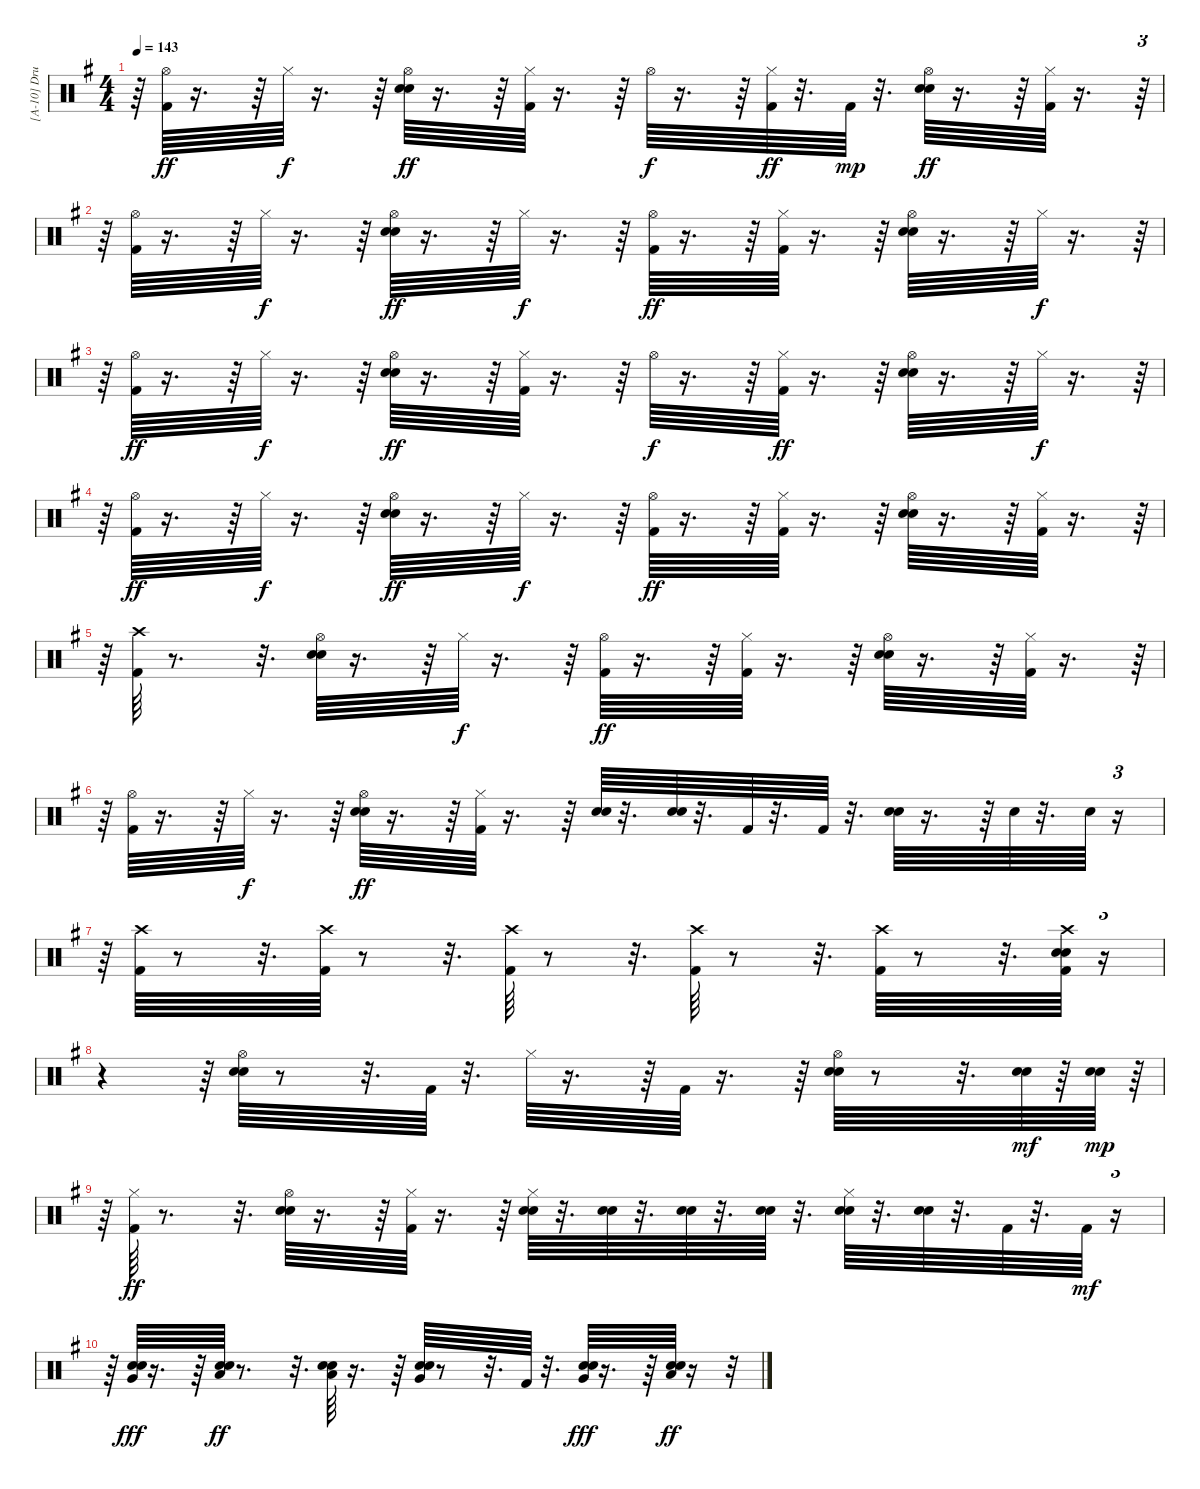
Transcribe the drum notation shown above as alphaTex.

\track ("[A-10] Drums" "[A-10] Dru") {instrument percussion}
\staff {score}
\articulation defaults
\ts (4 4)
\tempo 143
\clef neutral
\ks g
r.64{dy f} ("Hi-Hat (open)" "Kick (hit) 2").64{dy ff} r.16{d} r.64 "Hi-Hat (closed)".64{dy f} r.16{d} r.64 ("Hi-Hat (open)" "Electric Snare (hit)" "Snare (hit) 2").64{dy ff} r.16{d} r.64 ("Hi-Hat (closed)" "Kick (hit) 2").64 r.16{d} r.64 "Hi-Hat (open)".64{dy f} r.16{d} r.64 ("Hi-Hat (closed)" "Kick (hit) 2").64{dy ff} r.32{d} "Kick (hit) 2".64{dy mp} r.32{d} ("Hi-Hat (open)" "Electric Snare (hit)" "Snare (hit) 2").64{dy ff} r.16{d} r.64 ("Hi-Hat (closed)" "Kick (hit) 2").64 r.16{d} r.64{tu (3 2)} |
r.64 ("Hi-Hat (open)" "Kick (hit) 2").64 r.16{d} r.64 "Hi-Hat (closed)".64{dy f} r.16{d} r.64 ("Hi-Hat (open)" "Electric Snare (hit)" "Snare (hit) 2").64{dy ff} r.16{d} r.64 "Hi-Hat (closed)".64{dy f} r.16{d} r.64 ("Hi-Hat (open)" "Kick (hit) 2").64{dy ff} r.16{d} r.64 ("Hi-Hat (closed)" "Kick (hit) 2").64 r.16{d} r.64 ("Hi-Hat (open)" "Electric Snare (hit)" "Snare (hit) 2").64 r.16{d} r.64 "Hi-Hat (closed)".64{dy f} r.16{d} r.64{tu (3 2)} |
r.64 ("Hi-Hat (open)" "Kick (hit) 2").64{dy ff} r.16{d} r.64 "Hi-Hat (closed)".64{dy f} r.16{d} r.64 ("Hi-Hat (open)" "Electric Snare (hit)" "Snare (hit) 2").64{dy ff} r.16{d} r.64 ("Hi-Hat (closed)" "Kick (hit) 2").64 r.16{d} r.64 "Hi-Hat (open)".64{dy f} r.16{d} r.64 ("Hi-Hat (closed)" "Kick (hit) 2").64{dy ff} r.16{d} r.64 ("Hi-Hat (open)" "Electric Snare (hit)" "Snare (hit) 2").64 r.16{d} r.64 "Hi-Hat (closed)".64{dy f} r.16{d} r.64{tu (3 2)} |
r.64 ("Hi-Hat (open)" "Kick (hit) 2").64{dy ff} r.16{d} r.64 "Hi-Hat (closed)".64{dy f} r.16{d} r.64 ("Hi-Hat (open)" "Electric Snare (hit)" "Snare (hit) 2").64{dy ff} r.16{d} r.64 "Hi-Hat (closed)".64{dy f} r.16{d} r.64 ("Hi-Hat (open)" "Kick (hit) 2").64{dy ff} r.16{d} r.64 ("Hi-Hat (closed)" "Kick (hit) 2").64 r.16{d} r.64 ("Hi-Hat (open)" "Electric Snare (hit)" "Snare (hit) 2").64 r.16{d} r.64 ("Hi-Hat (closed)" "Kick (hit) 2").64 r.16{d} r.64{tu (3 2)} |
r.64 ("Crash high (hit)" "Kick (hit) 2").64 r.8{d} r.32{d} ("Hi-Hat (open)" "Electric Snare (hit)" "Snare (hit) 2").64 r.16{d} r.64 "Hi-Hat (closed)".64{dy f} r.16{d} r.64 ("Hi-Hat (open)" "Kick (hit) 2").64{dy ff} r.16{d} r.64 ("Hi-Hat (closed)" "Kick (hit) 2").64 r.16{d} r.64 ("Hi-Hat (open)" "Electric Snare (hit)" "Snare (hit) 2").64 r.16{d} r.64 ("Hi-Hat (closed)" "Kick (hit) 2").64 r.16{d} r.64{tu (3 2)} |
r.64 ("Hi-Hat (open)" "Kick (hit) 2").64 r.16{d} r.64 "Hi-Hat (closed)".64{dy f} r.16{d} r.64 ("Hi-Hat (open)" "Electric Snare (hit)" "Snare (hit) 2").64{dy ff} r.16{d} r.64 ("Hi-Hat (closed)" "Kick (hit) 2").64 r.16{d} r.64 ("Electric Snare (hit)" "Snare (hit) 2").64 r.32{d} ("Electric Snare (hit)" "Snare (hit) 2").64 r.32{d} "Kick (hit) 2".64 r.32{d} "Kick (hit) 2".64 r.32{d} ("Electric Snare (hit)" "Snare (hit) 2").64 r.16{d} r.64 "Electric Snare (hit)".64 r.32{d} "Electric Snare (hit)".64 r.16{tu (3 2)} |
r.64 ("Crash high (hit)" "Kick (hit) 2").64 r.8 r.32{d} ("Crash high (hit)" "Kick (hit) 2").64 r.8 r.32{d} ("Crash high (hit)" "Kick (hit) 2").64 r.8 r.32{d} ("Crash high (hit)" "Kick (hit) 2").64 r.8 r.32{d} ("Crash high (hit)" "Kick (hit) 2").64 r.8 r.32{d} ("Crash high (hit)" "Electric Snare (hit)" "Snare (hit) 2" "Kick (hit) 2").64 r.16{tu (3 2)} |
r.4 r.64 ("Hi-Hat (open)" "Electric Snare (hit)" "Snare (hit) 2").64 r.8 r.32{d} "Kick (hit) 2".64 r.32{d} "Hi-Hat (closed)".64 r.16{d} r.64 "Kick (hit) 2".64 r.16{d} r.64 ("Hi-Hat (open)" "Electric Snare (hit)" "Snare (hit) 2").64 r.8 r.32{d} ("Electric Snare (hit)" "Snare (hit) 2").64{dy mf} r.64 ("Electric Snare (hit)" "Snare (hit) 2").64{dy mp} r.64{tu (3 2)} |
r.64 ("Hi-Hat (closed)" "Kick (hit) 2").64{dy ff} r.8{d} r.32{d} ("Hi-Hat (open)" "Electric Snare (hit)" "Snare (hit) 2").64 r.16{d} r.64 ("Hi-Hat (closed)" "Kick (hit) 2").64 r.16{d} r.64 ("Hi-Hat (closed)" "Electric Snare (hit)" "Snare (hit) 2").64 r.32{d} ("Electric Snare (hit)" "Snare (hit) 2").64 r.32{d} ("Electric Snare (hit)" "Snare (hit) 2").64 r.32{d} ("Electric Snare (hit)" "Snare (hit) 2").64 r.32{d} ("Hi-Hat (closed)" "Electric Snare (hit)" "Snare (hit) 2").64 r.32{d} ("Electric Snare (hit)" "Snare (hit) 2").64 r.32{d} "Kick (hit) 2".64 r.32{d} "Kick (hit) 2".64{dy mf} r.16{tu (3 2)} |
r.64 ("Electric Snare (hit)" "Snare (hit) 2" "Very Low Tom (hit)").64{dy fff} r.16{d} r.64 ("Low Floor Tom (hit)" "Electric Snare (hit)" "Snare (hit) 2").64{dy ff} r.8{d} r.32{d} ("Low Tom (hit)" "Electric Snare (hit)" "Snare (hit) 2").64 r.16{d} r.64 ("Very Low Tom (hit)" "Electric Snare (hit)" "Snare (hit) 2").64 r.8 r.32{d} "Kick (hit) 2".64 r.32{d} ("Electric Snare (hit)" "Snare (hit) 2" "Very Low Tom (hit)").64{dy fff} r.16{d} r.64 ("Low Floor Tom (hit)" "Electric Snare (hit)" "Snare (hit) 2").64{dy ff} r.16 r.32
